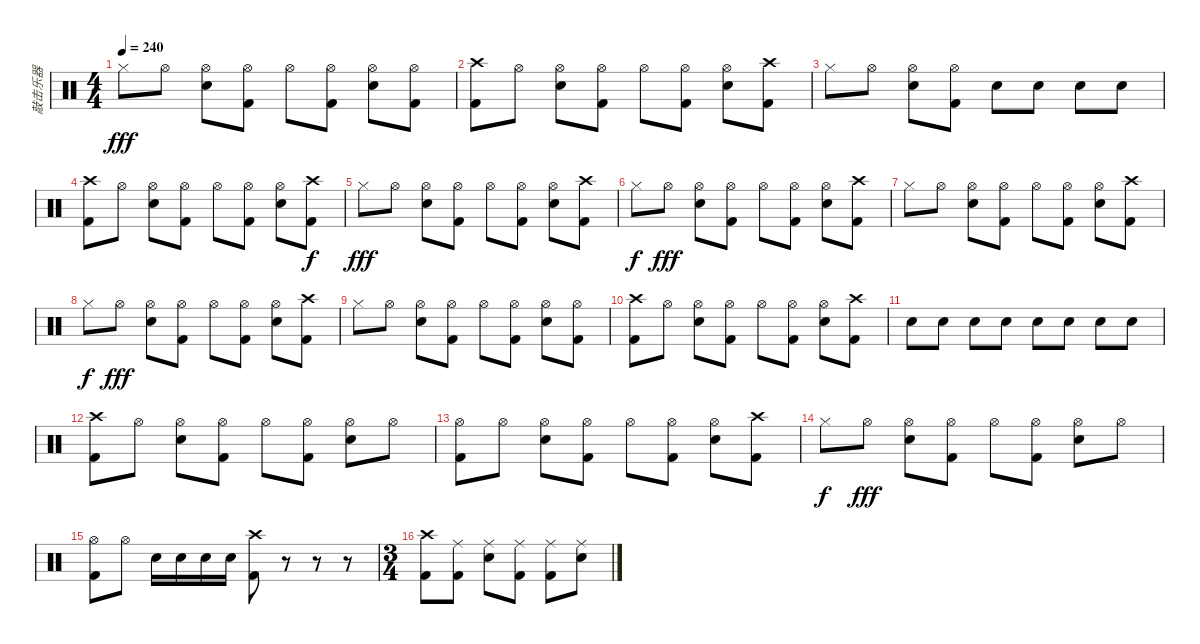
\track ("敲击乐器" "敲击乐器") {instrument percussion}
\staff {score}
\articulation defaults
\ts (4 4)
\tempo 240
\clef neutral
\ks c "Hi-Hat (closed)".8{dy fff} "Hi-Hat (open)".8
("Hi-Hat (open)" "Snare (hit) 2").8 ("Hi-Hat (open)" "Kick (hit) 2").8 "Hi-Hat (open)".8 ("Hi-Hat (open)" "Kick (hit) 2").8 ("Hi-Hat (open)" "Snare (hit) 2").8 ("Hi-Hat (open)" "Kick (hit) 2").8 |
("Crash high (hit)" "Kick (hit) 2").8 "Hi-Hat (open)".8 ("Hi-Hat (open)" "Snare (hit) 2").8 ("Hi-Hat (open)" "Kick (hit) 2").8 "Hi-Hat (open)".8 ("Hi-Hat (open)" "Kick (hit) 2").8 ("Hi-Hat (open)" "Snare (hit) 2").8 ("Crash high (hit)" "Kick (hit) 2").8 |
"Hi-Hat (closed)".8 "Hi-Hat (open)".8 ("Hi-Hat (open)" "Snare (hit) 2").8 ("Hi-Hat (open)" "Kick (hit) 2").8 "Snare (hit) 2".8 "Snare (hit) 2".8 "Snare (hit) 2".8 "Snare (hit) 2".8 |
("Crash high (hit)" "Kick (hit) 2").8 "Hi-Hat (open)".8 ("Hi-Hat (open)" "Snare (hit) 2").8 ("Hi-Hat (open)" "Kick (hit) 2").8 "Hi-Hat (open)".8 ("Hi-Hat (open)" "Kick (hit) 2").8 ("Hi-Hat (open)" "Snare (hit) 2").8 ("Crash high (hit)" "Kick (hit) 2").8{dy f} |
"Hi-Hat (closed)".8{dy fff} "Hi-Hat (open)".8 ("Hi-Hat (open)" "Snare (hit) 2").8 ("Hi-Hat (open)" "Kick (hit) 2").8 "Hi-Hat (open)".8 ("Hi-Hat (open)" "Kick (hit) 2").8 ("Hi-Hat (open)" "Snare (hit) 2").8 ("Crash high (hit)" "Kick (hit) 2").8 |
"Hi-Hat (closed)".8{dy f} "Hi-Hat (open)".8{dy fff} ("Hi-Hat (open)" "Snare (hit) 2").8 ("Hi-Hat (open)" "Kick (hit) 2").8 "Hi-Hat (open)".8 ("Hi-Hat (open)" "Kick (hit) 2").8 ("Hi-Hat (open)" "Snare (hit) 2").8 ("Crash high (hit)" "Kick (hit) 2").8 |
"Hi-Hat (closed)".8 "Hi-Hat (open)".8 ("Hi-Hat (open)" "Snare (hit) 2").8 ("Hi-Hat (open)" "Kick (hit) 2").8 "Hi-Hat (open)".8 ("Hi-Hat (open)" "Kick (hit) 2").8 ("Hi-Hat (open)" "Snare (hit) 2").8 ("Crash high (hit)" "Kick (hit) 2").8 |
"Hi-Hat (closed)".8{dy f} "Hi-Hat (open)".8{dy fff} ("Hi-Hat (open)" "Snare (hit) 2").8 ("Hi-Hat (open)" "Kick (hit) 2").8 "Hi-Hat (open)".8 ("Hi-Hat (open)" "Kick (hit) 2").8 ("Hi-Hat (open)" "Snare (hit) 2").8 ("Crash high (hit)" "Kick (hit) 2").8 |
"Hi-Hat (closed)".8 "Hi-Hat (open)".8 ("Hi-Hat (open)" "Snare (hit) 2").8 ("Hi-Hat (open)" "Kick (hit) 2").8 "Hi-Hat (open)".8 ("Hi-Hat (open)" "Kick (hit) 2").8 ("Hi-Hat (open)" "Snare (hit) 2").8 ("Hi-Hat (open)" "Kick (hit) 2").8 |
("Crash high (hit)" "Kick (hit) 2").8 "Hi-Hat (open)".8 ("Hi-Hat (open)" "Snare (hit) 2").8 ("Hi-Hat (open)" "Kick (hit) 2").8 "Hi-Hat (open)".8 ("Hi-Hat (open)" "Kick (hit) 2").8 ("Hi-Hat (open)" "Snare (hit) 2").8 ("Crash high (hit)" "Kick (hit) 2").8 |
"Snare (hit) 2".8 "Snare (hit) 2".8 "Snare (hit) 2".8 "Snare (hit) 2".8 "Snare (hit) 2".8 "Snare (hit) 2".8 "Snare (hit) 2".8 "Snare (hit) 2".8 |
("Crash high (hit)" "Kick (hit) 2").8 "Hi-Hat (open)".8 ("Hi-Hat (open)" "Snare (hit) 2").8 ("Hi-Hat (open)" "Kick (hit) 2").8 "Hi-Hat (open)".8 ("Hi-Hat (open)" "Kick (hit) 2").8 ("Hi-Hat (open)" "Snare (hit) 2").8 "Hi-Hat (open)".8 |
("Hi-Hat (open)" "Kick (hit) 2").8 "Hi-Hat (open)".8 ("Hi-Hat (open)" "Snare (hit) 2").8 ("Hi-Hat (open)" "Kick (hit) 2").8 "Hi-Hat (open)".8 ("Hi-Hat (open)" "Kick (hit) 2").8 ("Hi-Hat (open)" "Snare (hit) 2").8 ("Crash high (hit)" "Kick (hit) 2").8 |
"Hi-Hat (closed)".8{dy f} "Hi-Hat (open)".8{dy fff} ("Hi-Hat (open)" "Snare (hit) 2").8 ("Hi-Hat (open)" "Kick (hit) 2").8 "Hi-Hat (open)".8 ("Hi-Hat (open)" "Kick (hit) 2").8 ("Hi-Hat (open)" "Snare (hit) 2").8 "Hi-Hat (open)".8 |
("Hi-Hat (open)" "Kick (hit) 2").8 "Hi-Hat (open)".8 "Snare (hit) 2".16 "Snare (hit) 2".16 "Snare (hit) 2".16 "Snare (hit) 2".16 ("Crash high (hit)" "Kick (hit) 2").8 r.8 r.8 r.8 |
\ts (3 4)
("Crash high (hit)" "Kick (hit) 2").8 ("Ride (middle)" "Kick (hit) 2").8 ("Ride (middle)" "Snare (hit) 2").8 ("Ride (middle)" "Kick (hit) 2").8 ("Ride (middle)" "Kick (hit) 2").8 ("Ride (middle)" "Snare (hit) 2").8
